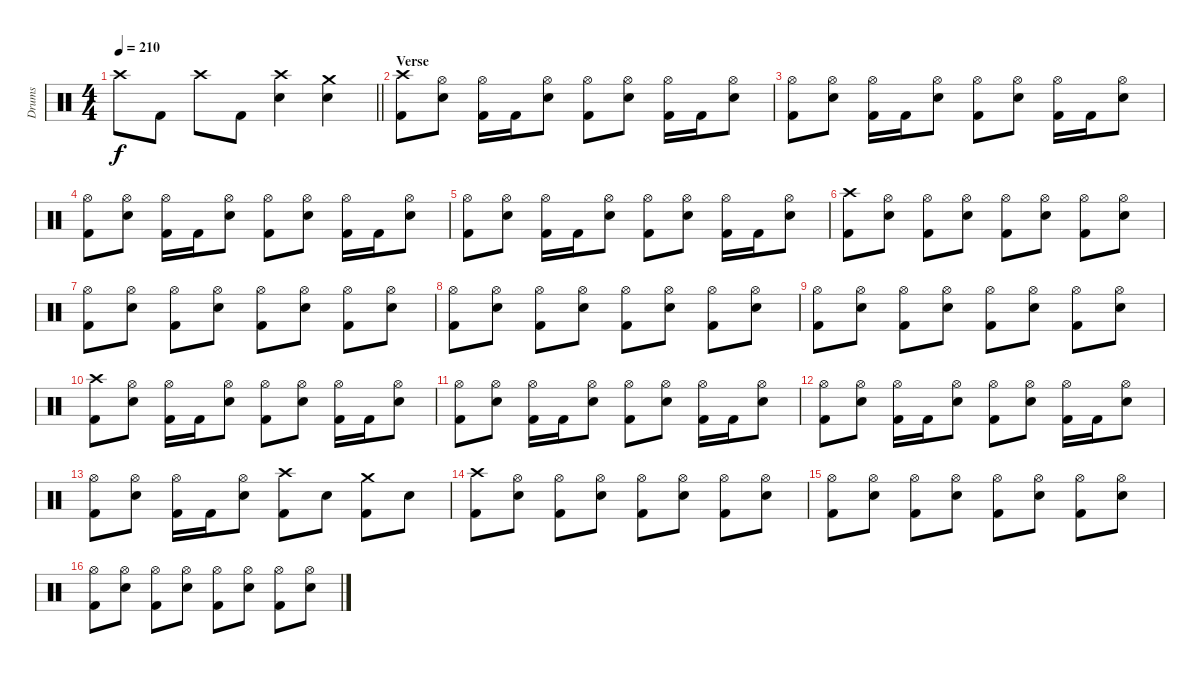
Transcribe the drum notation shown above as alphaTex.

\track ("Drums" "Drums") {instrument percussion}
\staff {score}
\articulation defaults
\ts (4 4)
\tempo 210
\clef neutral
\barLineRight lightlight
\ks c "Crash high (hit)".8{dy f} "Kick (hit) 2".8 "Crash high (hit)".8 "Kick (hit) 2".8
("Electric Snare (hit)" "Crash high (hit)").4 ("Electric Snare (hit)" "Crash medium (hit)").4 |
\section ("" "Verse")
("Kick (hit) 2" "Crash high (hit)").8 ("Electric Snare (hit)" "Hi-Hat (open)").8 ("Kick (hit) 2" "Hi-Hat (open)").16 "Kick (hit) 2".16 ("Electric Snare (hit)" "Hi-Hat (open)").8 ("Kick (hit) 2" "Hi-Hat (open)").8 ("Electric Snare (hit)" "Hi-Hat (open)").8 ("Kick (hit) 2" "Hi-Hat (open)").16 "Kick (hit) 2".16 ("Electric Snare (hit)" "Hi-Hat (open)").8 |
("Kick (hit) 2" "Hi-Hat (open)").8 ("Electric Snare (hit)" "Hi-Hat (open)").8 ("Kick (hit) 2" "Hi-Hat (open)").16 "Kick (hit) 2".16 ("Electric Snare (hit)" "Hi-Hat (open)").8 ("Kick (hit) 2" "Hi-Hat (open)").8 ("Electric Snare (hit)" "Hi-Hat (open)").8 ("Kick (hit) 2" "Hi-Hat (open)").16 "Kick (hit) 2".16 ("Electric Snare (hit)" "Hi-Hat (open)").8 |
("Kick (hit) 2" "Hi-Hat (open)").8 ("Electric Snare (hit)" "Hi-Hat (open)").8 ("Kick (hit) 2" "Hi-Hat (open)").16 "Kick (hit) 2".16 ("Electric Snare (hit)" "Hi-Hat (open)").8 ("Kick (hit) 2" "Hi-Hat (open)").8 ("Electric Snare (hit)" "Hi-Hat (open)").8 ("Kick (hit) 2" "Hi-Hat (open)").16 "Kick (hit) 2".16 ("Electric Snare (hit)" "Hi-Hat (open)").8 |
("Kick (hit) 2" "Hi-Hat (open)").8 ("Electric Snare (hit)" "Hi-Hat (open)").8 ("Kick (hit) 2" "Hi-Hat (open)").16 "Kick (hit) 2".16 ("Electric Snare (hit)" "Hi-Hat (open)").8 ("Kick (hit) 2" "Hi-Hat (open)").8 ("Electric Snare (hit)" "Hi-Hat (open)").8 ("Kick (hit) 2" "Hi-Hat (open)").16 "Kick (hit) 2".16 ("Electric Snare (hit)" "Hi-Hat (open)").8 |
("Kick (hit) 2" "Crash high (hit)").8 ("Electric Snare (hit)" "Hi-Hat (open)").8 ("Kick (hit) 2" "Hi-Hat (open)").8 ("Electric Snare (hit)" "Hi-Hat (open)").8 ("Kick (hit) 2" "Hi-Hat (open)").8 ("Electric Snare (hit)" "Hi-Hat (open)").8 ("Kick (hit) 2" "Hi-Hat (open)").8 ("Electric Snare (hit)" "Hi-Hat (open)").8 |
("Kick (hit) 2" "Hi-Hat (open)").8 ("Electric Snare (hit)" "Hi-Hat (open)").8 ("Kick (hit) 2" "Hi-Hat (open)").8 ("Electric Snare (hit)" "Hi-Hat (open)").8 ("Kick (hit) 2" "Hi-Hat (open)").8 ("Electric Snare (hit)" "Hi-Hat (open)").8 ("Kick (hit) 2" "Hi-Hat (open)").8 ("Electric Snare (hit)" "Hi-Hat (open)").8 |
("Kick (hit) 2" "Hi-Hat (open)").8 ("Electric Snare (hit)" "Hi-Hat (open)").8 ("Kick (hit) 2" "Hi-Hat (open)").8 ("Electric Snare (hit)" "Hi-Hat (open)").8 ("Kick (hit) 2" "Hi-Hat (open)").8 ("Electric Snare (hit)" "Hi-Hat (open)").8 ("Kick (hit) 2" "Hi-Hat (open)").8 ("Electric Snare (hit)" "Hi-Hat (open)").8 |
("Kick (hit) 2" "Hi-Hat (open)").8 ("Electric Snare (hit)" "Hi-Hat (open)").8 ("Kick (hit) 2" "Hi-Hat (open)").8 ("Electric Snare (hit)" "Hi-Hat (open)").8 ("Kick (hit) 2" "Hi-Hat (open)").8 ("Electric Snare (hit)" "Hi-Hat (open)").8 ("Kick (hit) 2" "Hi-Hat (open)").8 ("Electric Snare (hit)" "Hi-Hat (open)").8 |
("Kick (hit) 2" "Crash high (hit)").8 ("Electric Snare (hit)" "Hi-Hat (open)").8 ("Kick (hit) 2" "Hi-Hat (open)").16 "Kick (hit) 2".16 ("Electric Snare (hit)" "Hi-Hat (open)").8 ("Kick (hit) 2" "Hi-Hat (open)").8 ("Electric Snare (hit)" "Hi-Hat (open)").8 ("Kick (hit) 2" "Hi-Hat (open)").16 "Kick (hit) 2".16 ("Electric Snare (hit)" "Hi-Hat (open)").8 |
("Kick (hit) 2" "Hi-Hat (open)").8 ("Electric Snare (hit)" "Hi-Hat (open)").8 ("Kick (hit) 2" "Hi-Hat (open)").16 "Kick (hit) 2".16 ("Electric Snare (hit)" "Hi-Hat (open)").8 ("Kick (hit) 2" "Hi-Hat (open)").8 ("Electric Snare (hit)" "Hi-Hat (open)").8 ("Kick (hit) 2" "Hi-Hat (open)").16 "Kick (hit) 2".16 ("Electric Snare (hit)" "Hi-Hat (open)").8 |
("Kick (hit) 2" "Hi-Hat (open)").8 ("Electric Snare (hit)" "Hi-Hat (open)").8 ("Kick (hit) 2" "Hi-Hat (open)").16 "Kick (hit) 2".16 ("Electric Snare (hit)" "Hi-Hat (open)").8 ("Kick (hit) 2" "Hi-Hat (open)").8 ("Electric Snare (hit)" "Hi-Hat (open)").8 ("Kick (hit) 2" "Hi-Hat (open)").16 "Kick (hit) 2".16 ("Electric Snare (hit)" "Hi-Hat (open)").8 |
("Kick (hit) 2" "Hi-Hat (open)").8 ("Electric Snare (hit)" "Hi-Hat (open)").8 ("Kick (hit) 2" "Hi-Hat (open)").16 "Kick (hit) 2".16 ("Electric Snare (hit)" "Hi-Hat (open)").8 ("Kick (hit) 2" "Crash high (hit)").8 "Electric Snare (hit)".8 ("Kick (hit) 2" "Crash medium (hit)").8 "Electric Snare (hit)".8 |
("Kick (hit) 2" "Crash high (hit)").8 ("Electric Snare (hit)" "Hi-Hat (open)").8 ("Kick (hit) 2" "Hi-Hat (open)").8 ("Electric Snare (hit)" "Hi-Hat (open)").8 ("Kick (hit) 2" "Hi-Hat (open)").8 ("Electric Snare (hit)" "Hi-Hat (open)").8 ("Kick (hit) 2" "Hi-Hat (open)").8 ("Electric Snare (hit)" "Hi-Hat (open)").8 |
("Kick (hit) 2" "Hi-Hat (open)").8 ("Electric Snare (hit)" "Hi-Hat (open)").8 ("Kick (hit) 2" "Hi-Hat (open)").8 ("Electric Snare (hit)" "Hi-Hat (open)").8 ("Kick (hit) 2" "Hi-Hat (open)").8 ("Electric Snare (hit)" "Hi-Hat (open)").8 ("Kick (hit) 2" "Hi-Hat (open)").8 ("Electric Snare (hit)" "Hi-Hat (open)").8 |
("Kick (hit) 2" "Hi-Hat (open)").8 ("Electric Snare (hit)" "Hi-Hat (open)").8 ("Kick (hit) 2" "Hi-Hat (open)").8 ("Electric Snare (hit)" "Hi-Hat (open)").8 ("Kick (hit) 2" "Hi-Hat (open)").8 ("Electric Snare (hit)" "Hi-Hat (open)").8 ("Kick (hit) 2" "Hi-Hat (open)").8 ("Electric Snare (hit)" "Hi-Hat (open)").8
